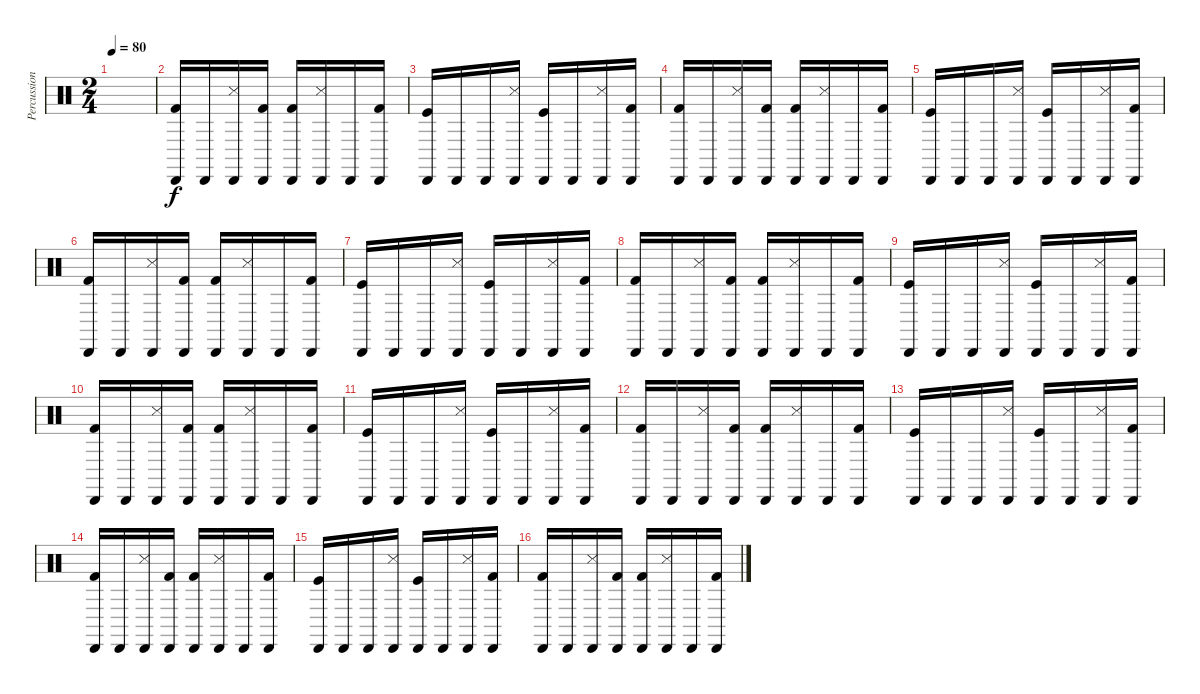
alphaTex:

\track ("Percussions" "Percussion") {instrument percussion}
\staff {score}
\articulation defaults
\ts (2 4)
\tempo 80
\clef neutral
\ks c
|
("Cabasa (hit)" "Kick (hit) 2").16 "Cabasa (hit)".16 ("Cabasa (hit)" "Snare (side stick) 3").16 ("Cabasa (hit)" "Kick (hit) 2").16 ("Cabasa (hit)" "Kick (hit) 2").16 ("Cabasa (hit)" "Snare (side stick) 3").16 "Cabasa (hit)".16 ("Cabasa (hit)" "Kick (hit) 2").16 |
("Cabasa (hit)" "Kick (hit)").16 "Cabasa (hit)".16 "Cabasa (hit)".16 ("Cabasa (hit)" "Snare (side stick) 3").16 ("Cabasa (hit)" "Kick (hit)").16 "Cabasa (hit)".16 ("Cabasa (hit)" "Snare (side stick) 3").16 ("Cabasa (hit)" "Kick (hit) 2").16 |
("Cabasa (hit)" "Kick (hit) 2").16 "Cabasa (hit)".16 ("Cabasa (hit)" "Snare (side stick) 3").16 ("Cabasa (hit)" "Kick (hit) 2").16 ("Cabasa (hit)" "Kick (hit) 2").16 ("Cabasa (hit)" "Snare (side stick) 3").16 "Cabasa (hit)".16 ("Cabasa (hit)" "Kick (hit) 2").16 |
("Cabasa (hit)" "Kick (hit)").16 "Cabasa (hit)".16 "Cabasa (hit)".16 ("Cabasa (hit)" "Snare (side stick) 3").16 ("Cabasa (hit)" "Kick (hit)").16 "Cabasa (hit)".16 ("Cabasa (hit)" "Snare (side stick) 3").16 ("Cabasa (hit)" "Kick (hit) 2").16 |
("Cabasa (hit)" "Kick (hit) 2").16 "Cabasa (hit)".16 ("Cabasa (hit)" "Snare (side stick) 3").16 ("Cabasa (hit)" "Kick (hit) 2").16 ("Cabasa (hit)" "Kick (hit) 2").16 ("Cabasa (hit)" "Snare (side stick) 3").16 "Cabasa (hit)".16 ("Cabasa (hit)" "Kick (hit) 2").16 |
("Cabasa (hit)" "Kick (hit)").16 "Cabasa (hit)".16 "Cabasa (hit)".16 ("Cabasa (hit)" "Snare (side stick) 3").16 ("Cabasa (hit)" "Kick (hit)").16 "Cabasa (hit)".16 ("Cabasa (hit)" "Snare (side stick) 3").16 ("Cabasa (hit)" "Kick (hit) 2").16 |
("Cabasa (hit)" "Kick (hit) 2").16 "Cabasa (hit)".16 ("Cabasa (hit)" "Snare (side stick) 3").16 ("Cabasa (hit)" "Kick (hit) 2").16 ("Cabasa (hit)" "Kick (hit) 2").16 ("Cabasa (hit)" "Snare (side stick) 3").16 "Cabasa (hit)".16 ("Cabasa (hit)" "Kick (hit) 2").16 |
("Cabasa (hit)" "Kick (hit)").16 "Cabasa (hit)".16 "Cabasa (hit)".16 ("Cabasa (hit)" "Snare (side stick) 3").16 ("Cabasa (hit)" "Kick (hit)").16 "Cabasa (hit)".16 ("Cabasa (hit)" "Snare (side stick) 3").16 ("Cabasa (hit)" "Kick (hit) 2").16 |
("Cabasa (hit)" "Kick (hit) 2").16 "Cabasa (hit)".16 ("Cabasa (hit)" "Snare (side stick) 3").16 ("Cabasa (hit)" "Kick (hit) 2").16 ("Cabasa (hit)" "Kick (hit) 2").16 ("Cabasa (hit)" "Snare (side stick) 3").16 "Cabasa (hit)".16 ("Cabasa (hit)" "Kick (hit) 2").16 |
("Cabasa (hit)" "Kick (hit)").16 "Cabasa (hit)".16 "Cabasa (hit)".16 ("Cabasa (hit)" "Snare (side stick) 3").16 ("Cabasa (hit)" "Kick (hit)").16 "Cabasa (hit)".16 ("Cabasa (hit)" "Snare (side stick) 3").16 ("Cabasa (hit)" "Kick (hit) 2").16 |
("Cabasa (hit)" "Kick (hit) 2").16 "Cabasa (hit)".16 ("Cabasa (hit)" "Snare (side stick) 3").16 ("Cabasa (hit)" "Kick (hit) 2").16 ("Cabasa (hit)" "Kick (hit) 2").16 ("Cabasa (hit)" "Snare (side stick) 3").16 "Cabasa (hit)".16 ("Cabasa (hit)" "Kick (hit) 2").16 |
("Cabasa (hit)" "Kick (hit)").16 "Cabasa (hit)".16 "Cabasa (hit)".16 ("Cabasa (hit)" "Snare (side stick) 3").16 ("Cabasa (hit)" "Kick (hit)").16 "Cabasa (hit)".16 ("Cabasa (hit)" "Snare (side stick) 3").16 ("Cabasa (hit)" "Kick (hit) 2").16 |
("Cabasa (hit)" "Kick (hit) 2").16 "Cabasa (hit)".16 ("Cabasa (hit)" "Snare (side stick) 3").16 ("Cabasa (hit)" "Kick (hit) 2").16 ("Cabasa (hit)" "Kick (hit) 2").16 ("Cabasa (hit)" "Snare (side stick) 3").16 "Cabasa (hit)".16 ("Cabasa (hit)" "Kick (hit) 2").16 |
("Cabasa (hit)" "Kick (hit)").16 "Cabasa (hit)".16 "Cabasa (hit)".16 ("Cabasa (hit)" "Snare (side stick) 3").16 ("Cabasa (hit)" "Kick (hit)").16 "Cabasa (hit)".16 ("Cabasa (hit)" "Snare (side stick) 3").16 ("Cabasa (hit)" "Kick (hit) 2").16 |
("Cabasa (hit)" "Kick (hit) 2").16 "Cabasa (hit)".16 ("Cabasa (hit)" "Snare (side stick) 3").16 ("Cabasa (hit)" "Kick (hit) 2").16 ("Cabasa (hit)" "Kick (hit) 2").16 ("Cabasa (hit)" "Snare (side stick) 3").16 "Cabasa (hit)".16 ("Cabasa (hit)" "Kick (hit) 2").16
